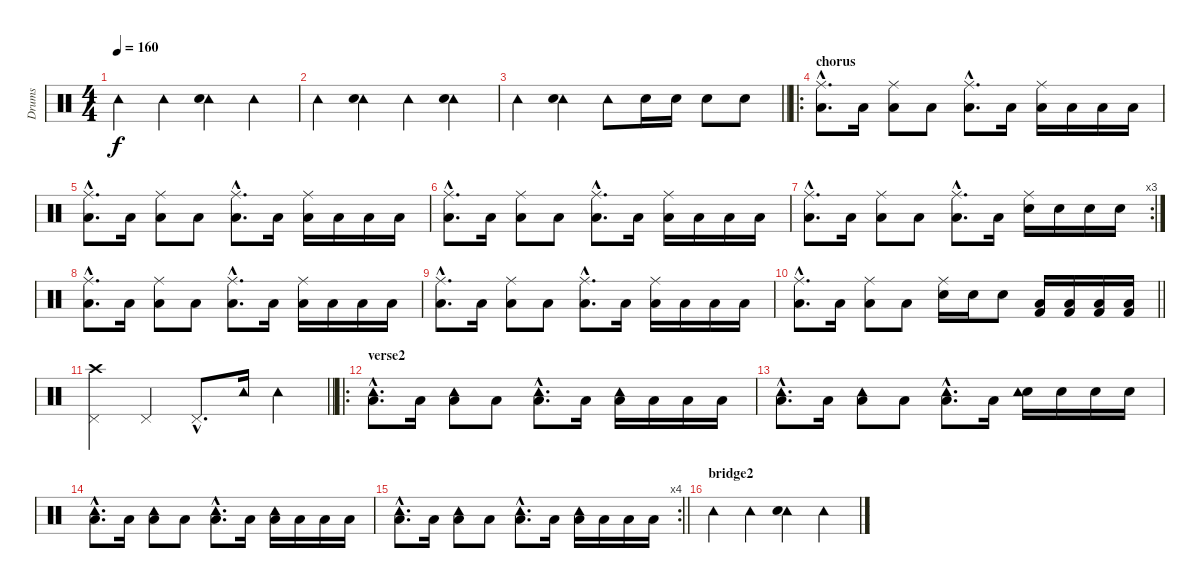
\track ("Drums" "Drums") {instrument percussion}
\staff {score}
\articulation defaults
\ts (4 4)
\tempo 160
\clef neutral
\ks c "Tambourine (hit)".4{dy f} "Tambourine (hit)".4
("Tambourine (hit)" "Snare (hit) 2").4 "Tambourine (hit)".4 |
"Tambourine (hit)".4 ("Tambourine (hit)" "Electric Snare (hit)").4 "Tambourine (hit)".4 ("Tambourine (hit)" "Snare (hit) 2").4 |
\barLineRight lightlight "Tambourine (hit)".4
("Tambourine (hit)" "Electric Snare (hit)").4 "Tambourine (hit)".8 "Snare (hit) 2".16 "Snare (hit) 2".16 "Snare (hit) 2".8 "Snare (hit) 2".8 |
\ro
\section ("" "chorus")
("Ride (middle)"{hac} "Low Tom (hit)"{hac}).8{d} "Low Tom (hit)".16 ("Ride (middle)" "Low Tom (hit)").8 "Low Tom (hit)".8 ("Ride (middle)"{hac} "Low Tom (hit)"{hac}).8{d} "Low Tom (hit)".16 ("Ride (middle)" "Low Tom (hit)").16 "Low Tom (hit)".16 "Low Tom (hit)".16 "Low Tom (hit)".16 |
("Ride (middle)"{hac} "Low Tom (hit)"{hac}).8{d} "Low Tom (hit)".16 ("Ride (middle)" "Low Tom (hit)").8 "Low Tom (hit)".8 ("Ride (middle)"{hac} "Low Tom (hit)"{hac}).8{d} "Low Tom (hit)".16 ("Ride (middle)" "Low Tom (hit)").16 "Low Tom (hit)".16 "Low Tom (hit)".16 "Low Tom (hit)".16 |
("Ride (middle)"{hac} "Low Tom (hit)"{hac}).8{d} "Low Tom (hit)".16 ("Ride (middle)" "Low Tom (hit)").8 "Low Tom (hit)".8 ("Ride (middle)"{hac} "Low Tom (hit)"{hac}).8{d} "Low Tom (hit)".16 ("Ride (middle)" "Low Tom (hit)").16 "Low Tom (hit)".16 "Low Tom (hit)".16 "Low Tom (hit)".16 |
\rc 3
("Ride (middle)"{hac} "Low Tom (hit)"{hac}).8{d} "Low Tom (hit)".16 ("Ride (middle)" "Low Tom (hit)").8 "Low Tom (hit)".8 ("Ride (middle)"{hac} "Low Tom (hit)"{hac}).8{d} "Low Tom (hit)".16 ("Ride (middle)" "Snare (hit) 2").16 "Snare (hit) 2".16 "Snare (hit) 2".16 "Snare (hit) 2".16 |
("Ride (middle)"{hac} "Low Tom (hit)"{hac}).8{d} "Low Tom (hit)".16 ("Ride (middle)" "Low Tom (hit)").8 "Low Tom (hit)".8 ("Ride (middle)"{hac} "Low Tom (hit)"{hac}).8{d} "Low Tom (hit)".16 ("Ride (middle)" "Low Tom (hit)").16 "Low Tom (hit)".16 "Low Tom (hit)".16 "Low Tom (hit)".16 |
("Ride (middle)"{hac} "Low Tom (hit)"{hac}).8{d} "Low Tom (hit)".16 ("Ride (middle)" "Low Tom (hit)").8 "Low Tom (hit)".8 ("Ride (middle)"{hac} "Low Tom (hit)"{hac}).8{d} "Low Tom (hit)".16 ("Ride (middle)" "Low Tom (hit)").16 "Low Tom (hit)".16 "Low Tom (hit)".16 "Low Tom (hit)".16 |
\barLineRight lightlight
("Ride (middle)"{hac} "Low Tom (hit)"{hac}).8{d} "Low Tom (hit)".16 ("Ride (middle)" "Low Tom (hit)").8 "Low Tom (hit)".8 ("Ride (middle)" "Snare (hit) 2").16 "Snare (hit) 2".16 "Snare (hit) 2".8 ("Kick (hit) 2" "Low Tom (hit)").16 ("Kick (hit) 2" "Low Tom (hit)").16 ("Kick (hit) 2" "Low Tom (hit)").16 ("Kick (hit) 2" "Low Tom (hit)").16 |
\barLineRight lightlight
("Crash high (hit)" "Pedal Hi-Hat (hit)").4 "Pedal Hi-Hat (hit)".4 "Pedal Hi-Hat (hit)"{hac}.8{d} "Tambourine (hit)".16 "Tambourine (hit)".4 |
\ro
\section ("" "verse2")
("Tambourine (hit)"{hac} "Low Tom (hit)"{hac}).8{d} "Low Tom (hit)".16 ("Tambourine (hit)" "Low Tom (hit)").8 "Low Tom (hit)".8 ("Tambourine (hit)"{hac} "Low Tom (hit)"{hac}).8{d} "Low Tom (hit)".16 ("Tambourine (hit)" "Low Tom (hit)").16 "Low Tom (hit)".16 "Low Tom (hit)".16 "Low Tom (hit)".16 |
("Low Tom (hit)"{hac} "Tambourine (hit)"{hac}).8{d} "Low Tom (hit)".16 ("Low Tom (hit)" "Tambourine (hit)").8 "Low Tom (hit)".8 ("Low Tom (hit)"{hac} "Tambourine (hit)"{hac}).8{d} "Low Tom (hit)".16 ("Snare (hit) 2" "Tambourine (hit)").16 "Snare (hit) 2".16 "Snare (hit) 2".16 "Snare (hit) 2".16 |
("Low Tom (hit)"{hac} "Tambourine (hit)"{hac}).8{d} "Low Tom (hit)".16 ("Low Tom (hit)" "Tambourine (hit)").8 "Low Tom (hit)".8 ("Low Tom (hit)"{hac} "Tambourine (hit)"{hac}).8{d} "Low Tom (hit)".16 ("Low Tom (hit)" "Tambourine (hit)").16 "Low Tom (hit)".16 "Low Tom (hit)".16 "Low Tom (hit)".16 |
\rc 4
\barLineRight lightlight
("Low Tom (hit)"{hac} "Tambourine (hit)"{hac}).8{d} "Low Tom (hit)".16 ("Low Tom (hit)" "Tambourine (hit)").8 "Low Tom (hit)".8 ("Low Tom (hit)"{hac} "Tambourine (hit)"{hac}).8{d} "Low Tom (hit)".16 ("Low Tom (hit)" "Tambourine (hit)").16 "Low Tom (hit)".16 "Low Tom (hit)".16 "Low Tom (hit)".16 |
\section ("" "bridge2")
"Tambourine (hit)".4 "Tambourine (hit)".4 ("Tambourine (hit)" "Snare (hit) 2").4 "Tambourine (hit)".4
